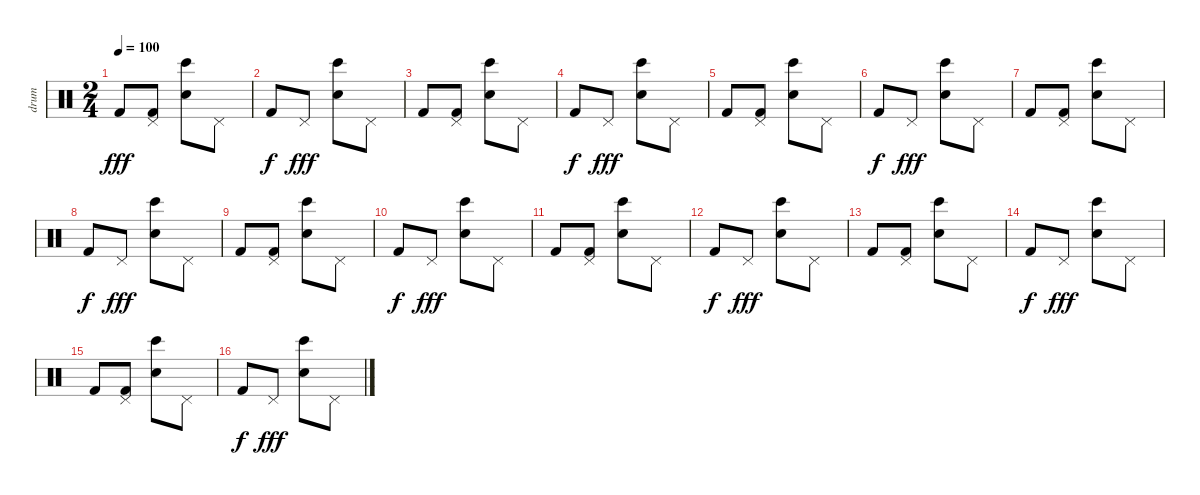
\track ("drum" "drum") {instrument percussion}
\staff {score}
\articulation defaults
\ts (2 4)
\tempo 100
\clef neutral
\ks c "Kick (hit) 2".8{dy fff}
("Pedal Hi-Hat (hit)" "Kick (hit) 2").8 ("Electric Snare (hit)" "Bongo High (hit)").8 "Pedal Hi-Hat (hit)".8 |
"Kick (hit) 2".8{dy f} "Pedal Hi-Hat (hit)".8{dy fff} ("Electric Snare (hit)" "Bongo High (hit)").8 "Pedal Hi-Hat (hit)".8 |
"Kick (hit) 2".8 ("Pedal Hi-Hat (hit)" "Kick (hit) 2").8 ("Electric Snare (hit)" "Bongo High (hit)").8 "Pedal Hi-Hat (hit)".8 |
"Kick (hit) 2".8{dy f} "Pedal Hi-Hat (hit)".8{dy fff} ("Electric Snare (hit)" "Bongo High (hit)").8 "Pedal Hi-Hat (hit)".8 |
"Kick (hit) 2".8 ("Pedal Hi-Hat (hit)" "Kick (hit) 2").8 ("Electric Snare (hit)" "Bongo High (hit)").8 "Pedal Hi-Hat (hit)".8 |
"Kick (hit) 2".8{dy f} "Pedal Hi-Hat (hit)".8{dy fff} ("Electric Snare (hit)" "Bongo High (hit)").8 "Pedal Hi-Hat (hit)".8 |
"Kick (hit) 2".8 ("Pedal Hi-Hat (hit)" "Kick (hit) 2").8 ("Electric Snare (hit)" "Bongo High (hit)").8 "Pedal Hi-Hat (hit)".8 |
"Kick (hit) 2".8{dy f} "Pedal Hi-Hat (hit)".8{dy fff} ("Electric Snare (hit)" "Bongo High (hit)").8 "Pedal Hi-Hat (hit)".8 |
"Kick (hit) 2".8 ("Pedal Hi-Hat (hit)" "Kick (hit) 2").8 ("Electric Snare (hit)" "Bongo High (hit)").8 "Pedal Hi-Hat (hit)".8 |
"Kick (hit) 2".8{dy f} "Pedal Hi-Hat (hit)".8{dy fff} ("Electric Snare (hit)" "Bongo High (hit)").8 "Pedal Hi-Hat (hit)".8 |
"Kick (hit) 2".8 ("Pedal Hi-Hat (hit)" "Kick (hit) 2").8 ("Electric Snare (hit)" "Bongo High (hit)").8 "Pedal Hi-Hat (hit)".8 |
"Kick (hit) 2".8{dy f} "Pedal Hi-Hat (hit)".8{dy fff} ("Electric Snare (hit)" "Bongo High (hit)").8 "Pedal Hi-Hat (hit)".8 |
"Kick (hit) 2".8 ("Pedal Hi-Hat (hit)" "Kick (hit) 2").8 ("Electric Snare (hit)" "Bongo High (hit)").8 "Pedal Hi-Hat (hit)".8 |
"Kick (hit) 2".8{dy f} "Pedal Hi-Hat (hit)".8{dy fff} ("Electric Snare (hit)" "Bongo High (hit)").8 "Pedal Hi-Hat (hit)".8 |
"Kick (hit) 2".8 ("Pedal Hi-Hat (hit)" "Kick (hit) 2").8 ("Electric Snare (hit)" "Bongo High (hit)").8 "Pedal Hi-Hat (hit)".8 |
"Kick (hit) 2".8{dy f} "Pedal Hi-Hat (hit)".8{dy fff} ("Electric Snare (hit)" "Bongo High (hit)").8 "Pedal Hi-Hat (hit)".8
